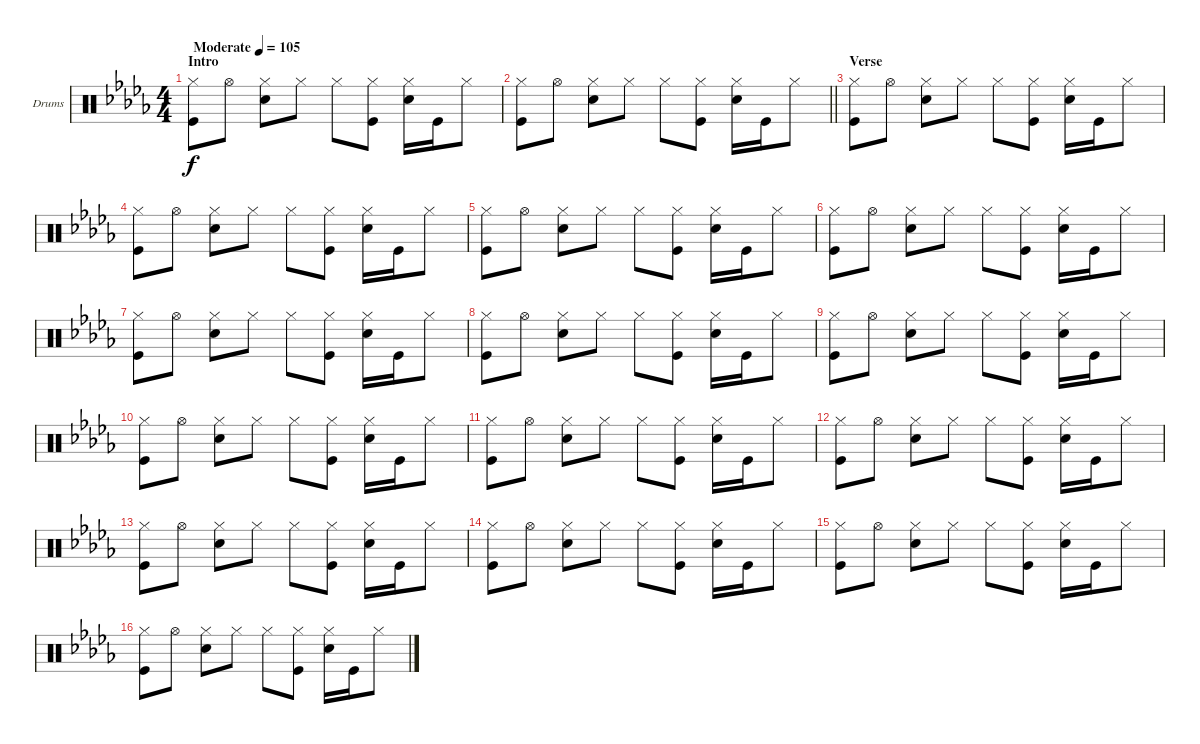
\bracketExtendMode groupsimilarinstruments
\firstSystemTrackNameOrientation horizontal
\otherSystemsTrackNameOrientation horizontal
\track ("Fabrizio" "Drums") {instrument percussion}
\staff {score}
\articulation defaults
\ts (4 4)
\beaming (8 2 2 2 2)
\section ("" "Intro")
\tempo (105 "Moderate")
\clef neutral
\ks db
("Hi-Hat (closed)" "Kick (hit)").8{dy f} "Hi-Hat (open)".8 ("Hi-Hat (closed)" "Snare (hit) 2").8 "Hi-Hat (closed)".8 "Hi-Hat (closed)".8 ("Hi-Hat (closed)" "Kick (hit)").8 ("Hi-Hat (closed)" "Snare (hit) 2").16 "Kick (hit)".16 "Hi-Hat (closed)".8 |
\barLineRight lightlight
("Hi-Hat (closed)" "Kick (hit)").8 "Hi-Hat (open)".8 ("Hi-Hat (closed)" "Snare (hit) 2").8 "Hi-Hat (closed)".8 "Hi-Hat (closed)".8 ("Hi-Hat (closed)" "Kick (hit)").8 ("Hi-Hat (closed)" "Snare (hit) 2").16 "Kick (hit)".16 "Hi-Hat (closed)".8 |
\section ("" "Verse")
("Hi-Hat (closed)" "Kick (hit)").8 "Hi-Hat (open)".8 ("Hi-Hat (closed)" "Snare (hit) 2").8 "Hi-Hat (closed)".8 "Hi-Hat (closed)".8 ("Hi-Hat (closed)" "Kick (hit)").8 ("Hi-Hat (closed)" "Snare (hit) 2").16 "Kick (hit)".16 "Hi-Hat (closed)".8 |
("Hi-Hat (closed)" "Kick (hit)").8 "Hi-Hat (open)".8 ("Hi-Hat (closed)" "Snare (hit) 2").8 "Hi-Hat (closed)".8 "Hi-Hat (closed)".8 ("Hi-Hat (closed)" "Kick (hit)").8 ("Hi-Hat (closed)" "Snare (hit) 2").16 "Kick (hit)".16 "Hi-Hat (closed)".8 |
("Hi-Hat (closed)" "Kick (hit)").8 "Hi-Hat (open)".8 ("Hi-Hat (closed)" "Snare (hit) 2").8 "Hi-Hat (closed)".8 "Hi-Hat (closed)".8 ("Hi-Hat (closed)" "Kick (hit)").8 ("Hi-Hat (closed)" "Snare (hit) 2").16 "Kick (hit)".16 "Hi-Hat (closed)".8 |
("Hi-Hat (closed)" "Kick (hit)").8 "Hi-Hat (open)".8 ("Hi-Hat (closed)" "Snare (hit) 2").8 "Hi-Hat (closed)".8 "Hi-Hat (closed)".8 ("Hi-Hat (closed)" "Kick (hit)").8 ("Hi-Hat (closed)" "Snare (hit) 2").16 "Kick (hit)".16 "Hi-Hat (closed)".8 |
("Hi-Hat (closed)" "Kick (hit)").8 "Hi-Hat (open)".8 ("Hi-Hat (closed)" "Snare (hit) 2").8 "Hi-Hat (closed)".8 "Hi-Hat (closed)".8 ("Hi-Hat (closed)" "Kick (hit)").8 ("Hi-Hat (closed)" "Snare (hit) 2").16 "Kick (hit)".16 "Hi-Hat (closed)".8 |
("Hi-Hat (closed)" "Kick (hit)").8 "Hi-Hat (open)".8 ("Hi-Hat (closed)" "Snare (hit) 2").8 "Hi-Hat (closed)".8 "Hi-Hat (closed)".8 ("Hi-Hat (closed)" "Kick (hit)").8 ("Hi-Hat (closed)" "Snare (hit) 2").16 "Kick (hit)".16 "Hi-Hat (closed)".8 |
("Hi-Hat (closed)" "Kick (hit)").8 "Hi-Hat (open)".8 ("Hi-Hat (closed)" "Snare (hit) 2").8 "Hi-Hat (closed)".8 "Hi-Hat (closed)".8 ("Hi-Hat (closed)" "Kick (hit)").8 ("Hi-Hat (closed)" "Snare (hit) 2").16 "Kick (hit)".16 "Hi-Hat (closed)".8 |
("Hi-Hat (closed)" "Kick (hit)").8 "Hi-Hat (open)".8 ("Hi-Hat (closed)" "Snare (hit) 2").8 "Hi-Hat (closed)".8 "Hi-Hat (closed)".8 ("Hi-Hat (closed)" "Kick (hit)").8 ("Hi-Hat (closed)" "Snare (hit) 2").16 "Kick (hit)".16 "Hi-Hat (closed)".8 |
("Hi-Hat (closed)" "Kick (hit)").8 "Hi-Hat (open)".8 ("Hi-Hat (closed)" "Snare (hit) 2").8 "Hi-Hat (closed)".8 "Hi-Hat (closed)".8 ("Hi-Hat (closed)" "Kick (hit)").8 ("Hi-Hat (closed)" "Snare (hit) 2").16 "Kick (hit)".16 "Hi-Hat (closed)".8 |
("Hi-Hat (closed)" "Kick (hit)").8 "Hi-Hat (open)".8 ("Hi-Hat (closed)" "Snare (hit) 2").8 "Hi-Hat (closed)".8 "Hi-Hat (closed)".8 ("Hi-Hat (closed)" "Kick (hit)").8 ("Hi-Hat (closed)" "Snare (hit) 2").16 "Kick (hit)".16 "Hi-Hat (closed)".8 |
("Hi-Hat (closed)" "Kick (hit)").8 "Hi-Hat (open)".8 ("Hi-Hat (closed)" "Snare (hit) 2").8 "Hi-Hat (closed)".8 "Hi-Hat (closed)".8 ("Hi-Hat (closed)" "Kick (hit)").8 ("Hi-Hat (closed)" "Snare (hit) 2").16 "Kick (hit)".16 "Hi-Hat (closed)".8 |
("Hi-Hat (closed)" "Kick (hit)").8 "Hi-Hat (open)".8 ("Hi-Hat (closed)" "Snare (hit) 2").8 "Hi-Hat (closed)".8 "Hi-Hat (closed)".8 ("Hi-Hat (closed)" "Kick (hit)").8 ("Hi-Hat (closed)" "Snare (hit) 2").16 "Kick (hit)".16 "Hi-Hat (closed)".8 |
("Hi-Hat (closed)" "Kick (hit)").8 "Hi-Hat (open)".8 ("Hi-Hat (closed)" "Snare (hit) 2").8 "Hi-Hat (closed)".8 "Hi-Hat (closed)".8 ("Hi-Hat (closed)" "Kick (hit)").8 ("Hi-Hat (closed)" "Snare (hit) 2").16 "Kick (hit)".16 "Hi-Hat (closed)".8 |
("Hi-Hat (closed)" "Kick (hit)").8 "Hi-Hat (open)".8 ("Hi-Hat (closed)" "Snare (hit) 2").8 "Hi-Hat (closed)".8 "Hi-Hat (closed)".8 ("Hi-Hat (closed)" "Kick (hit)").8 ("Hi-Hat (closed)" "Snare (hit) 2").16 "Kick (hit)".16 "Hi-Hat (closed)".8
